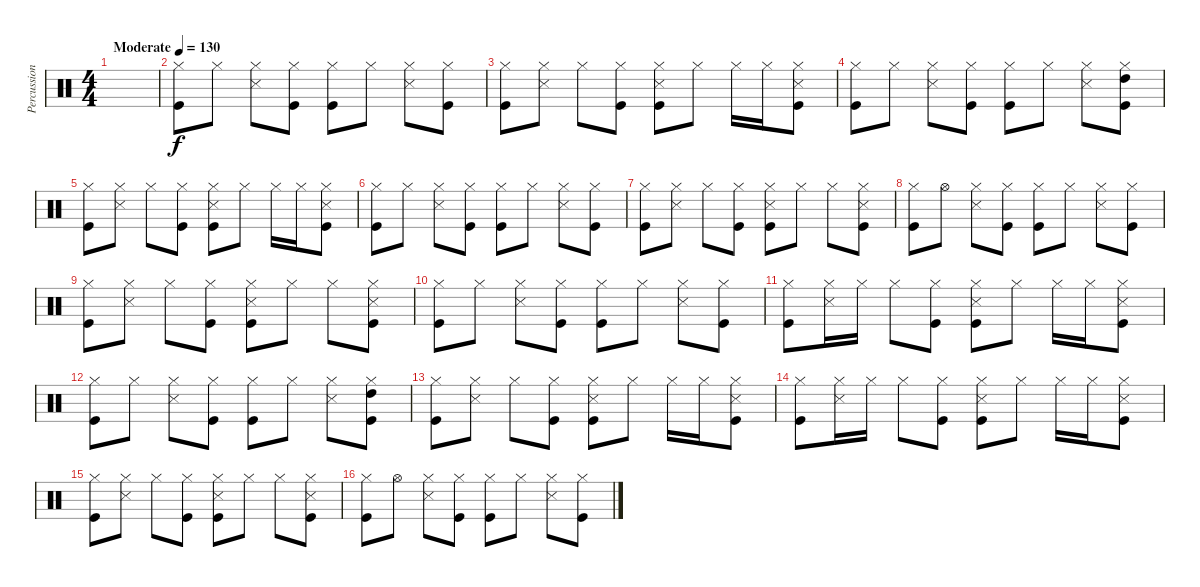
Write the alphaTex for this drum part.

\track ("Percussions 2" "Percussion") {instrument percussion}
\staff {score}
\articulation defaults
\ts (4 4)
\tempo (130 "Moderate")
\clef neutral
\ks c
|
("Kick (hit)" "Hi-Hat (closed)").8 "Hi-Hat (closed)".8 ("Snare (side stick) 3" "Hi-Hat (closed)").8 ("Kick (hit)" "Hi-Hat (closed)").8 ("Kick (hit)" "Hi-Hat (closed)").8 "Hi-Hat (closed)".8 ("Snare (side stick) 3" "Hi-Hat (closed)").8 ("Kick (hit)" "Hi-Hat (closed)").8 |
("Kick (hit)" "Hi-Hat (closed)").8 ("Snare (side stick) 3" "Hi-Hat (closed)").8 "Hi-Hat (closed)".8 ("Kick (hit)" "Hi-Hat (closed)").8 ("Kick (hit)" "Snare (side stick) 3" "Hi-Hat (closed)").8 "Hi-Hat (closed)".8 "Hi-Hat (closed)".16 "Hi-Hat (closed)".16 ("Kick (hit)" "Snare (side stick) 3" "Hi-Hat (closed)").8 |
("Kick (hit)" "Hi-Hat (closed)").8 "Hi-Hat (closed)".8 ("Snare (side stick) 3" "Hi-Hat (closed)").8 ("Kick (hit)" "Hi-Hat (closed)").8 ("Kick (hit)" "Hi-Hat (closed)").8 "Hi-Hat (closed)".8 ("Snare (side stick) 3" "Hi-Hat (closed)").8 ("Kick (hit)" "Hi-Hat (closed)" "High Tom (hit)").8 |
("Kick (hit)" "Hi-Hat (closed)").8 ("Snare (side stick) 3" "Hi-Hat (closed)").8 "Hi-Hat (closed)".8 ("Kick (hit)" "Hi-Hat (closed)").8 ("Kick (hit)" "Snare (side stick) 3" "Hi-Hat (closed)").8 "Hi-Hat (closed)".8 "Hi-Hat (closed)".16 "Hi-Hat (closed)".16 ("Kick (hit)" "Snare (side stick) 3" "Hi-Hat (closed)").8 |
("Kick (hit)" "Hi-Hat (closed)").8 "Hi-Hat (closed)".8 ("Snare (side stick) 3" "Hi-Hat (closed)").8 ("Kick (hit)" "Hi-Hat (closed)").8 ("Kick (hit)" "Hi-Hat (closed)").8 "Hi-Hat (closed)".8 ("Snare (side stick) 3" "Hi-Hat (closed)").8 ("Kick (hit)" "Hi-Hat (closed)").8 |
("Kick (hit)" "Hi-Hat (closed)").8 ("Snare (side stick) 3" "Hi-Hat (closed)").8 "Hi-Hat (closed)".8 ("Kick (hit)" "Hi-Hat (closed)").8 ("Kick (hit)" "Snare (side stick) 3" "Hi-Hat (closed)").8 "Hi-Hat (closed)".8 "Hi-Hat (closed)".8 ("Kick (hit)" "Snare (side stick) 3" "Hi-Hat (closed)").8 |
("Kick (hit)" "Hi-Hat (closed)").8 "Hi-Hat (open)".8 ("Snare (side stick) 3" "Hi-Hat (closed)").8 ("Kick (hit)" "Hi-Hat (closed)").8 ("Kick (hit)" "Hi-Hat (closed)").8 "Hi-Hat (closed)".8 ("Snare (side stick) 3" "Hi-Hat (closed)").8 ("Kick (hit)" "Hi-Hat (closed)").8 |
("Kick (hit)" "Hi-Hat (closed)").8 ("Snare (side stick) 3" "Hi-Hat (closed)").8 "Hi-Hat (closed)".8 ("Kick (hit)" "Hi-Hat (closed)").8 ("Kick (hit)" "Snare (side stick) 3" "Hi-Hat (closed)").8 "Hi-Hat (closed)".8 "Hi-Hat (closed)".8 ("Kick (hit)" "Snare (side stick) 3" "Hi-Hat (closed)").8 |
("Kick (hit)" "Hi-Hat (closed)").8 "Hi-Hat (closed)".8 ("Snare (side stick) 3" "Hi-Hat (closed)").8 ("Kick (hit)" "Hi-Hat (closed)").8 ("Kick (hit)" "Hi-Hat (closed)").8 "Hi-Hat (closed)".8 ("Snare (side stick) 3" "Hi-Hat (closed)").8 ("Kick (hit)" "Hi-Hat (closed)").8 |
("Kick (hit)" "Hi-Hat (closed)").8 ("Snare (side stick) 3" "Hi-Hat (closed)").16 "Hi-Hat (closed)".16 "Hi-Hat (closed)".8 ("Kick (hit)" "Hi-Hat (closed)").8 ("Kick (hit)" "Snare (side stick) 3" "Hi-Hat (closed)").8 "Hi-Hat (closed)".8 "Hi-Hat (closed)".16 "Hi-Hat (closed)".16 ("Kick (hit)" "Snare (side stick) 3" "Hi-Hat (closed)").8 |
("Kick (hit)" "Hi-Hat (closed)").8 "Hi-Hat (closed)".8 ("Snare (side stick) 3" "Hi-Hat (closed)").8 ("Kick (hit)" "Hi-Hat (closed)").8 ("Kick (hit)" "Hi-Hat (closed)").8 "Hi-Hat (closed)".8 ("Snare (side stick) 3" "Hi-Hat (closed)").8 ("Kick (hit)" "Hi-Hat (closed)" "High Tom (hit)").8 |
("Kick (hit)" "Hi-Hat (closed)").8 ("Snare (side stick) 3" "Hi-Hat (closed)").8 "Hi-Hat (closed)".8 ("Kick (hit)" "Hi-Hat (closed)").8 ("Kick (hit)" "Snare (side stick) 3" "Hi-Hat (closed)").8 "Hi-Hat (closed)".8 "Hi-Hat (closed)".16 "Hi-Hat (closed)".16 ("Kick (hit)" "Snare (side stick) 3" "Hi-Hat (closed)").8 |
("Kick (hit)" "Hi-Hat (closed)").8 ("Snare (side stick) 3" "Hi-Hat (closed)").16 "Hi-Hat (closed)".16 "Hi-Hat (closed)".8 ("Kick (hit)" "Hi-Hat (closed)").8 ("Kick (hit)" "Snare (side stick) 3" "Hi-Hat (closed)").8 "Hi-Hat (closed)".8 "Hi-Hat (closed)".16 "Hi-Hat (closed)".16 ("Kick (hit)" "Snare (side stick) 3" "Hi-Hat (closed)").8 |
("Kick (hit)" "Hi-Hat (closed)").8 ("Snare (side stick) 3" "Hi-Hat (closed)").8 "Hi-Hat (closed)".8 ("Kick (hit)" "Hi-Hat (closed)").8 ("Kick (hit)" "Snare (side stick) 3" "Hi-Hat (closed)").8 "Hi-Hat (closed)".8 "Hi-Hat (closed)".8 ("Kick (hit)" "Snare (side stick) 3" "Hi-Hat (closed)").8 |
("Kick (hit)" "Hi-Hat (closed)").8 "Hi-Hat (open)".8 ("Snare (side stick) 3" "Hi-Hat (closed)").8 ("Kick (hit)" "Hi-Hat (closed)").8 ("Kick (hit)" "Hi-Hat (closed)").8 "Hi-Hat (closed)".8 ("Snare (side stick) 3" "Hi-Hat (closed)").8 ("Kick (hit)" "Hi-Hat (closed)").8
